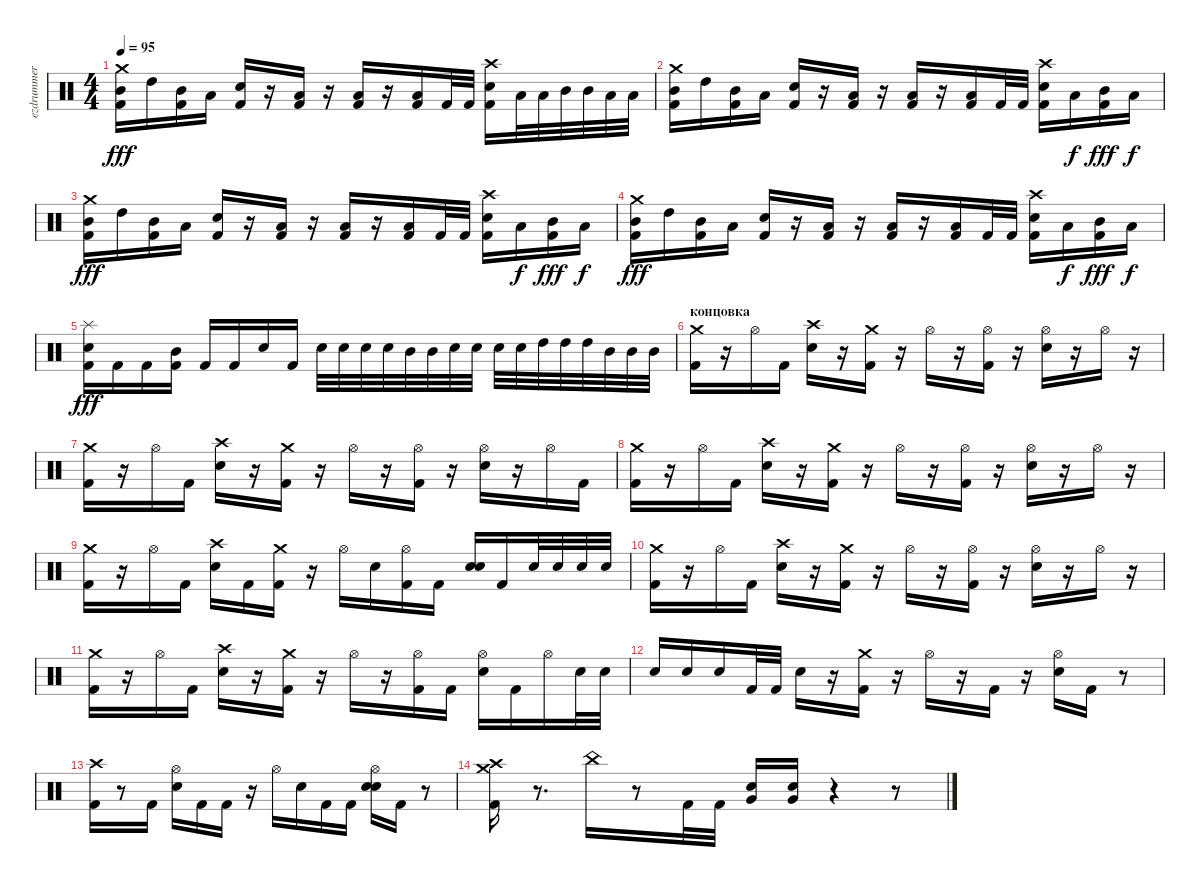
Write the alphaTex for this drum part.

\track ("ezdrummer 01" "ezdrummer ") {instrument percussion}
\staff {score}
\articulation defaults
\ts (4 4)
\tempo 95
\clef neutral
\ks c
("Kick (hit) 2" "Mid Tom (hit)" "Crash medium (hit)").16{dy fff} "High Tom (hit)".16 ("Kick (hit) 2" "Mid Tom (hit)").16 "Low Tom (hit)".16 ("Kick (hit) 2" "Snare (hit) 2").16 r.16 ("Kick (hit) 2" "Low Tom (hit)").16 r.16 ("Kick (hit) 2" "Low Tom (hit)").16 r.16 ("Kick (hit) 2" "Low Tom (hit)").16 "Kick (hit) 2".32 "Kick (hit) 2".32 ("Kick (hit) 2" "Snare (hit) 2" "Crash high (hit)").16 "Low Tom (hit)".32 "Low Tom (hit)".32 "Mid Tom (hit)".32 "Mid Tom (hit)".32 "Low Tom (hit)".32 "Low Tom (hit)".32 |
("Kick (hit) 2" "Mid Tom (hit)" "Crash medium (hit)").16 "High Tom (hit)".16 ("Kick (hit) 2" "Mid Tom (hit)").16 "Low Tom (hit)".16 ("Kick (hit) 2" "Snare (hit) 2").16 r.16 ("Kick (hit) 2" "Low Tom (hit)").16 r.16 ("Kick (hit) 2" "Low Tom (hit)").16 r.16 ("Kick (hit) 2" "Low Tom (hit)").16 "Kick (hit) 2".32 "Kick (hit) 2".32 ("Kick (hit) 2" "Snare (hit) 2" "Crash high (hit)").16 "Low Tom (hit)".16{dy f} ("Kick (hit) 2" "Mid Tom (hit)").16{dy fff} "Low Tom (hit)".16{dy f} |
("Kick (hit) 2" "Mid Tom (hit)" "Crash medium (hit)").16{dy fff} "High Tom (hit)".16 ("Kick (hit) 2" "Mid Tom (hit)").16 "Low Tom (hit)".16 ("Kick (hit) 2" "Snare (hit) 2").16 r.16 ("Kick (hit) 2" "Low Tom (hit)").16 r.16 ("Kick (hit) 2" "Low Tom (hit)").16 r.16 ("Kick (hit) 2" "Low Tom (hit)").16 "Kick (hit) 2".32 "Kick (hit) 2".32 ("Kick (hit) 2" "Snare (hit) 2" "Crash high (hit)").16 "Low Tom (hit)".16{dy f} ("Kick (hit) 2" "Mid Tom (hit)").16{dy fff} "Low Tom (hit)".16{dy f} |
("Kick (hit) 2" "Mid Tom (hit)" "Crash medium (hit)").16{dy fff} "High Tom (hit)".16 ("Kick (hit) 2" "Mid Tom (hit)").16 "Low Tom (hit)".16 ("Kick (hit) 2" "Snare (hit) 2").16 r.16 ("Kick (hit) 2" "Low Tom (hit)").16 r.16 ("Kick (hit) 2" "Low Tom (hit)").16 r.16 ("Kick (hit) 2" "Low Tom (hit)").16 "Kick (hit) 2".32 "Kick (hit) 2".32 ("Kick (hit) 2" "Snare (hit) 2" "Crash high (hit)").16 "Low Tom (hit)".16{dy f} ("Kick (hit) 2" "Mid Tom (hit)").16{dy fff} "Low Tom (hit)".16{dy f} |
("Kick (hit) 2" "Snare (hit) 2" "Splash (hit)").16{dy fff} "Kick (hit) 2".16 "Kick (hit) 2".16 ("Kick (hit) 2" "Mid Tom (hit)").16 "Kick (hit) 2".16 "Kick (hit) 2".16 "Snare (hit) 2".16 "Kick (hit) 2".16 "Snare (hit) 2".32 "Snare (hit) 2".32 "Snare (hit) 2".32 "Snare (hit) 2".32 "Mid Tom (hit)".32 "Mid Tom (hit)".32 "Snare (hit) 2".32 "Snare (hit) 2".32 "Snare (hit) 2".32 "Snare (hit) 2".32 "High Tom (hit)".32 "High Tom (hit)".32 "High Tom (hit)".32 "Mid Tom (hit)".32 "Mid Tom (hit)".32 "Mid Tom (hit)".32 |
\section ("" "концовка")
("Kick (hit) 2" "Crash medium (hit)").16 r.16 "Hi-Hat (open)".16 "Kick (hit) 2".16 ("Snare (hit) 2" "Crash high (hit)").16 r.16 ("Kick (hit) 2" "Crash medium (hit)").16 r.16 "Hi-Hat (open)".16 r.16 ("Kick (hit) 2" "Hi-Hat (open)").16 r.16 ("Snare (hit) 2" "Hi-Hat (open)").16 r.16 "Hi-Hat (open)".16 r.16 |
("Kick (hit) 2" "Crash medium (hit)").16 r.16 "Hi-Hat (open)".16 "Kick (hit) 2".16 ("Snare (hit) 2" "Crash high (hit)").16 r.16 ("Kick (hit) 2" "Crash medium (hit)").16 r.16 "Hi-Hat (open)".16 r.16 ("Kick (hit) 2" "Hi-Hat (open)").16 r.16 ("Snare (hit) 2" "Hi-Hat (open)").16 r.16 "Hi-Hat (open)".16 "Kick (hit) 2".16 |
("Kick (hit) 2" "Crash medium (hit)").16 r.16 "Hi-Hat (open)".16 "Kick (hit) 2".16 ("Snare (hit) 2" "Crash high (hit)").16 r.16 ("Kick (hit) 2" "Crash medium (hit)").16 r.16 "Hi-Hat (open)".16 r.16 ("Kick (hit) 2" "Hi-Hat (open)").16 r.16 ("Snare (hit) 2" "Hi-Hat (open)").16 r.16 "Hi-Hat (open)".16 r.16 |
("Kick (hit) 2" "Crash medium (hit)").16 r.16 "Hi-Hat (open)".16 "Kick (hit) 2".16 ("Snare (hit) 2" "Crash high (hit)").16 "Kick (hit) 2".16 ("Kick (hit) 2" "Crash medium (hit)").16 r.16 "Hi-Hat (open)".16 "Snare (hit) 2".16 ("Kick (hit) 2" "Hi-Hat (open)").16 "Kick (hit) 2".16 ("Snare (hit) 2" "Snare (hit) 2").16 "Kick (hit) 2".16 "Snare (hit) 2".32 "Snare (hit) 2".32 "Snare (hit) 2".32 "Snare (hit) 2".32 |
("Kick (hit) 2" "Crash medium (hit)").16 r.16 "Hi-Hat (open)".16 "Kick (hit) 2".16 ("Snare (hit) 2" "Crash high (hit)").16 r.16 ("Kick (hit) 2" "Crash medium (hit)").16 r.16 "Hi-Hat (open)".16 r.16 ("Kick (hit) 2" "Hi-Hat (open)").16 r.16 ("Snare (hit) 2" "Hi-Hat (open)").16 r.16 "Hi-Hat (open)".16 r.16 |
("Kick (hit) 2" "Crash medium (hit)").16 r.16 "Hi-Hat (open)".16 "Kick (hit) 2".16 ("Snare (hit) 2" "Crash high (hit)").16 r.16 ("Kick (hit) 2" "Crash medium (hit)").16 r.16 "Hi-Hat (open)".16 r.16 ("Kick (hit) 2" "Hi-Hat (open)").16 "Kick (hit) 2".16 ("Snare (hit) 2" "Hi-Hat (open)").16 "Kick (hit) 2".16 "Hi-Hat (open)".16 "Snare (hit) 2".32 "Snare (hit) 2".32 |
"Snare (hit) 2".16 "Snare (hit) 2".16 "Snare (hit) 2".16 "Kick (hit) 2".32 "Kick (hit) 2".32 "Snare (hit) 2".16 r.16 ("Kick (hit) 2" "Crash medium (hit)").16 r.16 "Hi-Hat (open)".16 r.16 "Kick (hit) 2".16 r.16 ("Snare (hit) 2" "Hi-Hat (open)").16 "Kick (hit) 2".16 r.8 |
("Kick (hit) 2" "Crash high (hit)").16 r.8 "Kick (hit) 2".16 ("Snare (hit) 2" "Hi-Hat (open)").16 "Kick (hit) 2".16 "Kick (hit) 2".16 r.16 "Hi-Hat (open)".16 "Snare (hit) 2".16 "Kick (hit) 2".16 "Kick (hit) 2".16 ("Snare (hit) 2" "Snare (hit) 2" "Hi-Hat (open)").16 "Kick (hit) 2".16 r.8 |
("Kick (hit) 2" "Crash high (hit)" "Crash medium (hit)").16 r.8{d} "China (hit)".16 r.8 "Kick (hit) 2".32 "Kick (hit) 2".32 ("Snare (hit) 2" "Very Low Tom (hit)").16 ("Snare (hit) 2" "Very Low Tom (hit)").16 r.4 r.8
